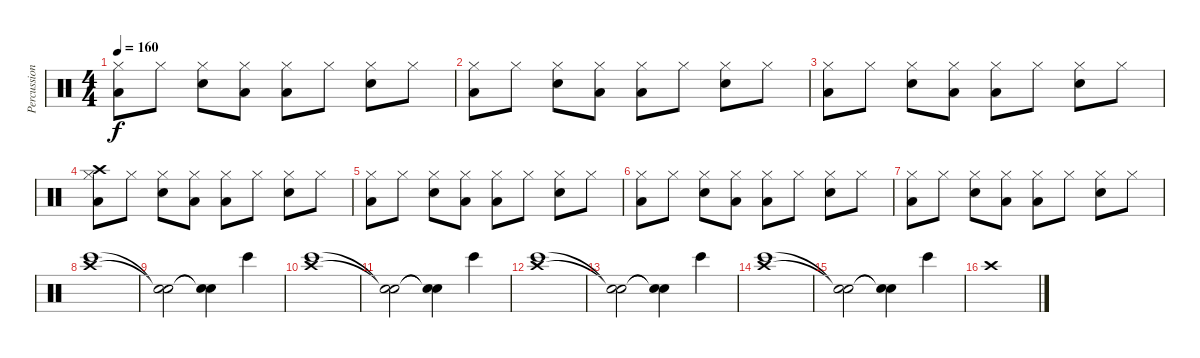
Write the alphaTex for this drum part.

\track ("Percussions" "Percussion") {instrument percussion}
\staff {score}
\articulation defaults
\ts (4 4)
\tempo 160
\clef neutral
\ks c
("Low Floor Tom (hit)" "Hi-Hat (closed)").8{dy f} "Hi-Hat (closed)".8 ("Electric Snare (hit)" "Hi-Hat (closed)").8 ("Low Floor Tom (hit)" "Hi-Hat (closed)").8 ("Low Floor Tom (hit)" "Hi-Hat (closed)").8 "Hi-Hat (closed)".8 ("Electric Snare (hit)" "Hi-Hat (closed)").8 "Hi-Hat (closed)".8 |
("Low Floor Tom (hit)" "Hi-Hat (closed)").8 "Hi-Hat (closed)".8 ("Electric Snare (hit)" "Hi-Hat (closed)").8 ("Low Floor Tom (hit)" "Hi-Hat (closed)").8 ("Low Floor Tom (hit)" "Hi-Hat (closed)").8 "Hi-Hat (closed)".8 ("Electric Snare (hit)" "Hi-Hat (closed)").8 "Hi-Hat (closed)".8 |
("Low Floor Tom (hit)" "Hi-Hat (closed)").8 "Hi-Hat (closed)".8 ("Electric Snare (hit)" "Hi-Hat (closed)").8 ("Low Floor Tom (hit)" "Hi-Hat (closed)").8 ("Low Floor Tom (hit)" "Hi-Hat (closed)").8 "Hi-Hat (closed)".8 ("Electric Snare (hit)" "Hi-Hat (closed)").8 "Hi-Hat (closed)".8 |
("Low Floor Tom (hit)" "Hi-Hat (closed)" "Crash high (hit)").8 "Hi-Hat (closed)".8 ("Electric Snare (hit)" "Hi-Hat (closed)").8 ("Low Floor Tom (hit)" "Hi-Hat (closed)").8 ("Low Floor Tom (hit)" "Hi-Hat (closed)").8 "Hi-Hat (closed)".8 ("Electric Snare (hit)" "Hi-Hat (closed)").8 "Hi-Hat (closed)".8 |
("Low Floor Tom (hit)" "Hi-Hat (closed)").8 "Hi-Hat (closed)".8 ("Electric Snare (hit)" "Hi-Hat (closed)").8 ("Low Floor Tom (hit)" "Hi-Hat (closed)").8 ("Low Floor Tom (hit)" "Hi-Hat (closed)").8 "Hi-Hat (closed)".8 ("Electric Snare (hit)" "Hi-Hat (closed)").8 "Hi-Hat (closed)".8 |
("Low Floor Tom (hit)" "Hi-Hat (closed)").8 "Hi-Hat (closed)".8 ("Electric Snare (hit)" "Hi-Hat (closed)").8 ("Low Floor Tom (hit)" "Hi-Hat (closed)").8 ("Low Floor Tom (hit)" "Hi-Hat (closed)").8 "Hi-Hat (closed)".8 ("Electric Snare (hit)" "Hi-Hat (closed)").8 "Hi-Hat (closed)".8 |
("Low Floor Tom (hit)" "Hi-Hat (closed)").8 "Hi-Hat (closed)".8 ("Electric Snare (hit)" "Hi-Hat (closed)").8 ("Low Floor Tom (hit)" "Hi-Hat (closed)").8 ("Low Floor Tom (hit)" "Hi-Hat (closed)").8 "Hi-Hat (closed)".8 ("Electric Snare (hit)" "Hi-Hat (closed)").8 "Hi-Hat (closed)".8 |
("Bongo High (hit)" "Crash high (hit)").1 |
("Snare (hit)"{t} "Snare (hit)"{t}).2 ("Snare (hit)"{t} "Snare (hit)"{t}).4 "Bongo High (hit)".4 |
("Bongo High (hit)" "Crash high (hit)").1 |
("Snare (hit)"{t} "Snare (hit)"{t}).2 ("Snare (hit)"{t} "Snare (hit)"{t}).4 "Bongo High (hit)".4 |
("Bongo High (hit)" "Crash high (hit)").1 |
("Snare (hit)"{t} "Snare (hit)"{t}).2 ("Snare (hit)"{t} "Snare (hit)"{t}).4 "Bongo High (hit)".4 |
("Bongo High (hit)" "Crash high (hit)").1 |
("Snare (hit)"{t} "Snare (hit)"{t}).2 ("Snare (hit)"{t} "Snare (hit)"{t}).4 "Bongo High (hit)".4 |
"Crash high (hit)".1
